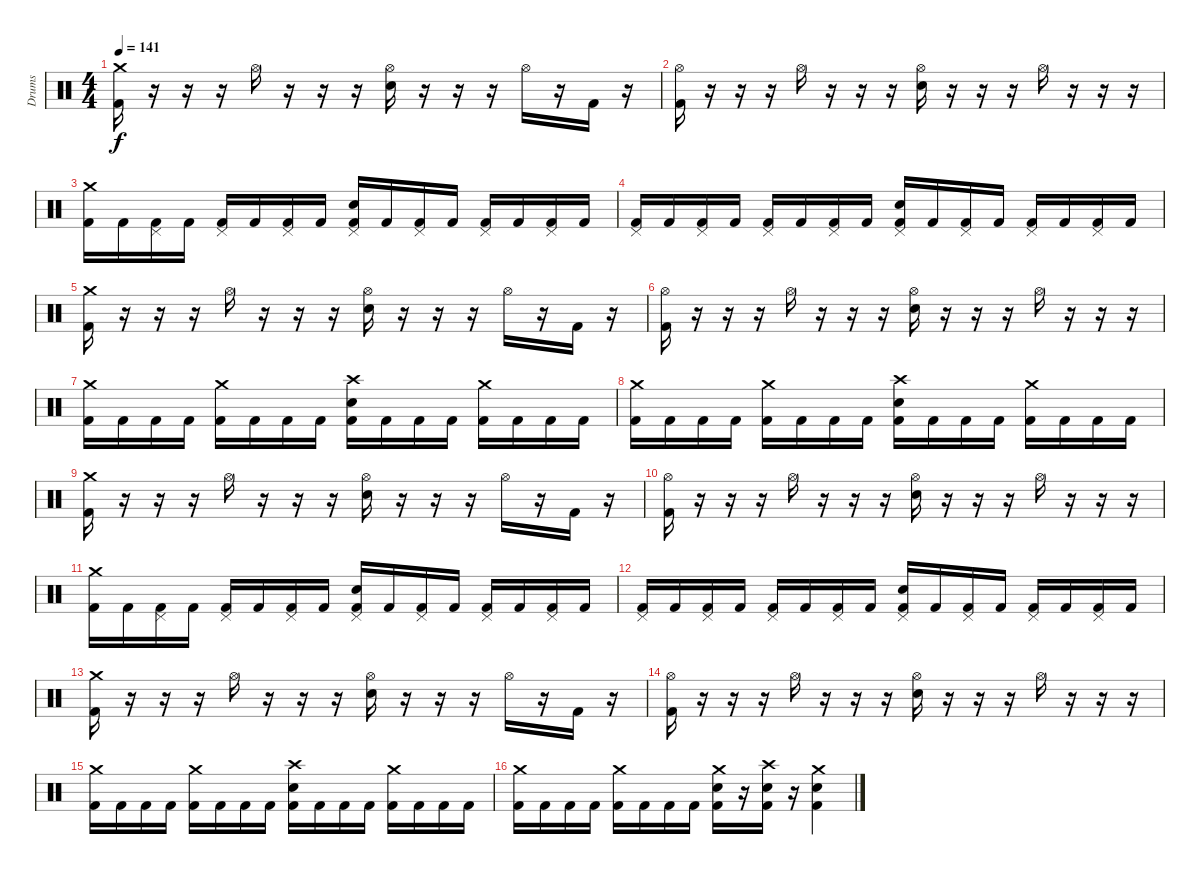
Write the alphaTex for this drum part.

\track ("Drums" "Drums") {instrument percussion}
\staff {score}
\articulation defaults
\ts (4 4)
\section ("" "")
\tempo 141
\clef neutral
\ks c
("Crash medium (hit)" "Kick (hit) 2").16{dy f} r.16 r.16 r.16 "Hi-Hat (open)".16 r.16 r.16 r.16 ("Hi-Hat (open)" "Electric Snare (hit)").16 r.16 r.16 r.16 "Hi-Hat (open)".16 r.16 "Kick (hit) 2".16 r.16 |
("Hi-Hat (open)" "Kick (hit) 2").16 r.16 r.16 r.16 "Hi-Hat (open)".16 r.16 r.16 r.16 ("Hi-Hat (open)" "Electric Snare (hit)").16 r.16 r.16 r.16 "Hi-Hat (open)".16 r.16 r.16 r.16 |
("Crash medium (hit)" "Kick (hit) 2").16 "Kick (hit) 2".16 ("Pedal Hi-Hat (hit)" "Kick (hit) 2").16 "Kick (hit) 2".16 ("Pedal Hi-Hat (hit)" "Kick (hit) 2").16 "Kick (hit) 2".16 ("Pedal Hi-Hat (hit)" "Kick (hit) 2").16 "Kick (hit) 2".16 ("Pedal Hi-Hat (hit)" "Electric Snare (hit)" "Kick (hit) 2").16 "Kick (hit) 2".16 ("Pedal Hi-Hat (hit)" "Kick (hit) 2").16 "Kick (hit) 2".16 ("Pedal Hi-Hat (hit)" "Kick (hit) 2").16 "Kick (hit) 2".16 ("Pedal Hi-Hat (hit)" "Kick (hit) 2").16 "Kick (hit) 2".16 |
("Pedal Hi-Hat (hit)" "Kick (hit) 2").16 "Kick (hit) 2".16 ("Pedal Hi-Hat (hit)" "Kick (hit) 2").16 "Kick (hit) 2".16 ("Pedal Hi-Hat (hit)" "Kick (hit) 2").16 "Kick (hit) 2".16 ("Pedal Hi-Hat (hit)" "Kick (hit) 2").16 "Kick (hit) 2".16 ("Pedal Hi-Hat (hit)" "Electric Snare (hit)" "Kick (hit) 2").16 "Kick (hit) 2".16 ("Pedal Hi-Hat (hit)" "Kick (hit) 2").16 "Kick (hit) 2".16 ("Pedal Hi-Hat (hit)" "Kick (hit) 2").16 "Kick (hit) 2".16 ("Pedal Hi-Hat (hit)" "Kick (hit) 2").16 "Kick (hit) 2".16 |
("Crash medium (hit)" "Kick (hit) 2").16 r.16 r.16 r.16 "Hi-Hat (open)".16 r.16 r.16 r.16 ("Hi-Hat (open)" "Electric Snare (hit)").16 r.16 r.16 r.16 "Hi-Hat (open)".16 r.16 "Kick (hit) 2".16 r.16 |
("Hi-Hat (open)" "Kick (hit) 2").16 r.16 r.16 r.16 "Hi-Hat (open)".16 r.16 r.16 r.16 ("Hi-Hat (open)" "Electric Snare (hit)").16 r.16 r.16 r.16 "Hi-Hat (open)".16 r.16 r.16 r.16 |
("Crash medium (hit)" "Kick (hit) 2").16 "Kick (hit) 2".16 "Kick (hit) 2".16 "Kick (hit) 2".16 ("Crash medium (hit)" "Kick (hit) 2").16 "Kick (hit) 2".16 "Kick (hit) 2".16 "Kick (hit) 2".16 ("Crash high (hit)" "Electric Snare (hit)" "Kick (hit) 2").16 "Kick (hit) 2".16 "Kick (hit) 2".16 "Kick (hit) 2".16 ("Crash medium (hit)" "Kick (hit) 2").16 "Kick (hit) 2".16 "Kick (hit) 2".16 "Kick (hit) 2".16 |
("Crash medium (hit)" "Kick (hit) 2").16 "Kick (hit) 2".16 "Kick (hit) 2".16 "Kick (hit) 2".16 ("Crash medium (hit)" "Kick (hit) 2").16 "Kick (hit) 2".16 "Kick (hit) 2".16 "Kick (hit) 2".16 ("Crash high (hit)" "Electric Snare (hit)" "Kick (hit) 2").16 "Kick (hit) 2".16 "Kick (hit) 2".16 "Kick (hit) 2".16 ("Crash medium (hit)" "Kick (hit) 2").16 "Kick (hit) 2".16 "Kick (hit) 2".16 "Kick (hit) 2".16 |
("Crash medium (hit)" "Kick (hit) 2").16 r.16 r.16 r.16 "Hi-Hat (open)".16 r.16 r.16 r.16 ("Hi-Hat (open)" "Electric Snare (hit)").16 r.16 r.16 r.16 "Hi-Hat (open)".16 r.16 "Kick (hit) 2".16 r.16 |
("Hi-Hat (open)" "Kick (hit) 2").16 r.16 r.16 r.16 "Hi-Hat (open)".16 r.16 r.16 r.16 ("Hi-Hat (open)" "Electric Snare (hit)").16 r.16 r.16 r.16 "Hi-Hat (open)".16 r.16 r.16 r.16 |
("Crash medium (hit)" "Kick (hit) 2").16 "Kick (hit) 2".16 ("Pedal Hi-Hat (hit)" "Kick (hit) 2").16 "Kick (hit) 2".16 ("Pedal Hi-Hat (hit)" "Kick (hit) 2").16 "Kick (hit) 2".16 ("Pedal Hi-Hat (hit)" "Kick (hit) 2").16 "Kick (hit) 2".16 ("Pedal Hi-Hat (hit)" "Electric Snare (hit)" "Kick (hit) 2").16 "Kick (hit) 2".16 ("Pedal Hi-Hat (hit)" "Kick (hit) 2").16 "Kick (hit) 2".16 ("Pedal Hi-Hat (hit)" "Kick (hit) 2").16 "Kick (hit) 2".16 ("Pedal Hi-Hat (hit)" "Kick (hit) 2").16 "Kick (hit) 2".16 |
("Pedal Hi-Hat (hit)" "Kick (hit) 2").16 "Kick (hit) 2".16 ("Pedal Hi-Hat (hit)" "Kick (hit) 2").16 "Kick (hit) 2".16 ("Pedal Hi-Hat (hit)" "Kick (hit) 2").16 "Kick (hit) 2".16 ("Pedal Hi-Hat (hit)" "Kick (hit) 2").16 "Kick (hit) 2".16 ("Pedal Hi-Hat (hit)" "Electric Snare (hit)" "Kick (hit) 2").16 "Kick (hit) 2".16 ("Pedal Hi-Hat (hit)" "Kick (hit) 2").16 "Kick (hit) 2".16 ("Pedal Hi-Hat (hit)" "Kick (hit) 2").16 "Kick (hit) 2".16 ("Pedal Hi-Hat (hit)" "Kick (hit) 2").16 "Kick (hit) 2".16 |
("Crash medium (hit)" "Kick (hit) 2").16 r.16 r.16 r.16 "Hi-Hat (open)".16 r.16 r.16 r.16 ("Hi-Hat (open)" "Electric Snare (hit)").16 r.16 r.16 r.16 "Hi-Hat (open)".16 r.16 "Kick (hit) 2".16 r.16 |
("Hi-Hat (open)" "Kick (hit) 2").16 r.16 r.16 r.16 "Hi-Hat (open)".16 r.16 r.16 r.16 ("Hi-Hat (open)" "Electric Snare (hit)").16 r.16 r.16 r.16 "Hi-Hat (open)".16 r.16 r.16 r.16 |
("Crash medium (hit)" "Kick (hit) 2").16 "Kick (hit) 2".16 "Kick (hit) 2".16 "Kick (hit) 2".16 ("Crash medium (hit)" "Kick (hit) 2").16 "Kick (hit) 2".16 "Kick (hit) 2".16 "Kick (hit) 2".16 ("Crash high (hit)" "Electric Snare (hit)" "Kick (hit) 2").16 "Kick (hit) 2".16 "Kick (hit) 2".16 "Kick (hit) 2".16 ("Crash medium (hit)" "Kick (hit) 2").16 "Kick (hit) 2".16 "Kick (hit) 2".16 "Kick (hit) 2".16 |
("Crash medium (hit)" "Kick (hit) 2").16 "Kick (hit) 2".16 "Kick (hit) 2".16 "Kick (hit) 2".16 ("Crash medium (hit)" "Kick (hit) 2").16 "Kick (hit) 2".16 "Kick (hit) 2".16 "Kick (hit) 2".16 ("Crash medium (hit)" "Electric Snare (hit)" "Kick (hit) 2").16 r.16 ("Crash high (hit)" "Electric Snare (hit)" "Kick (hit) 2").16 r.16 ("Crash medium (hit)" "Electric Snare (hit)" "Kick (hit) 2").4
